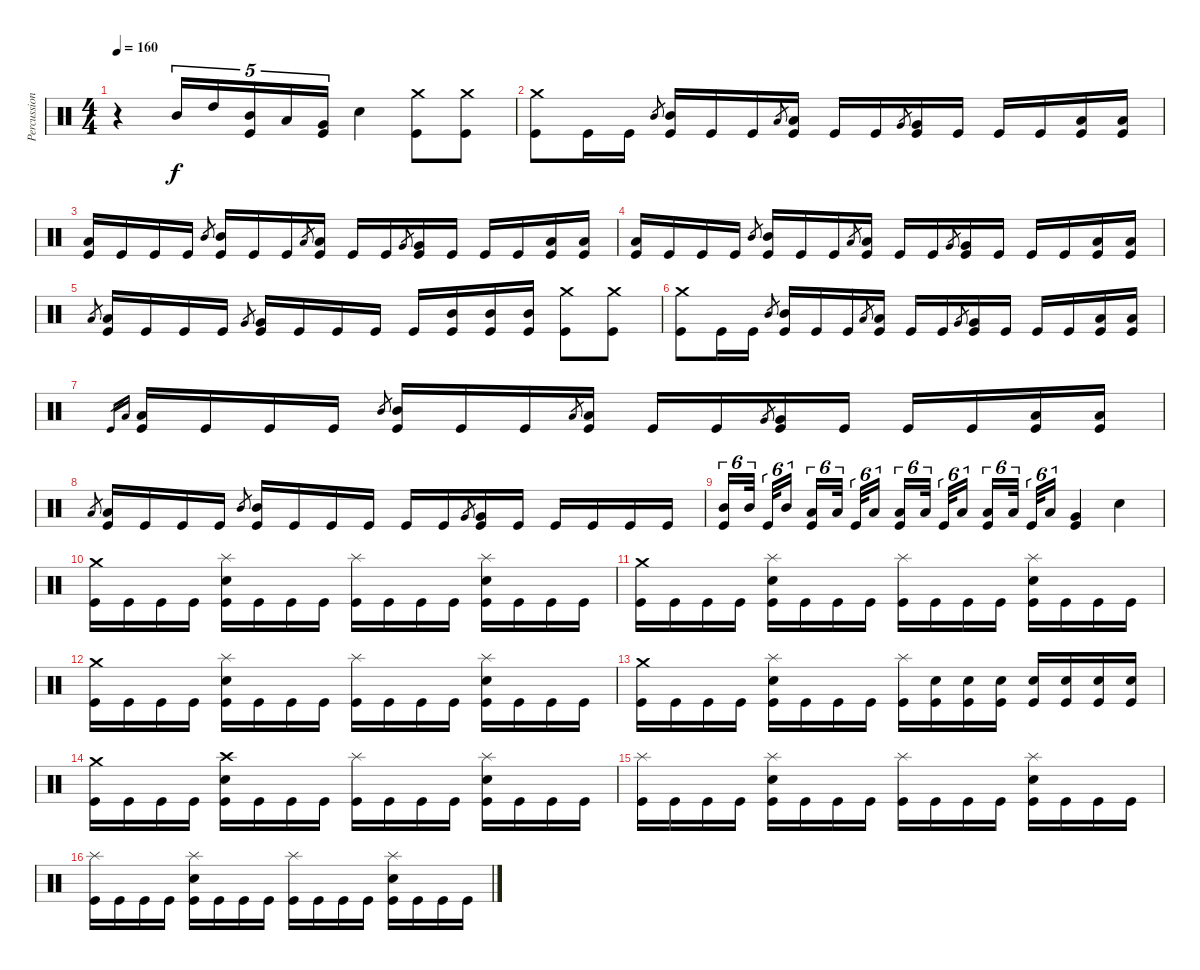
\track ("Percussions" "Percussion") {instrument percussion}
\staff {score}
\articulation defaults
\ts (4 4)
\tempo 160
\clef neutral
\ks c
r.4{dy f} "Mid Tom (hit)".16{tu (5 4)} "High Tom (hit)".16{tu (5 4)} ("Kick (hit)" "Mid Tom (hit)").16{tu (5 4)} "Low Tom (hit)".16{tu (5 4)} ("Kick (hit)" "Very Low Tom (hit)").16{tu (5 4)} "Electric Snare (hit)".4 ("Kick (hit)" "Crash medium (hit)").8 ("Kick (hit)" "Crash medium (hit)").8 |
("Kick (hit)" "Crash medium (hit)").8 "Kick (hit)".16 "Kick (hit)".16 "Mid Tom (hit)".8{gr} ("Kick (hit)" "Mid Tom (hit)").16 "Kick (hit)".16 "Kick (hit)".16 "Low Tom (hit)".8{gr} ("Kick (hit)" "Low Tom (hit)").16 "Kick (hit)".16 "Kick (hit)".16 "Very Low Tom (hit)".8{gr} ("Kick (hit)" "Very Low Tom (hit)").16 "Kick (hit)".16 "Kick (hit)".16 "Kick (hit)".16 ("Kick (hit)" "Low Floor Tom (hit)").16 ("Kick (hit)" "Low Floor Tom (hit)").16 |
("Kick (hit)" "Low Floor Tom (hit)").16 "Kick (hit)".16 "Kick (hit)".16 "Kick (hit)".16 "Mid Tom (hit)".8{gr} ("Kick (hit)" "Mid Tom (hit)").16 "Kick (hit)".16 "Kick (hit)".16 "Low Tom (hit)".8{gr} ("Kick (hit)" "Low Tom (hit)").16 "Kick (hit)".16 "Kick (hit)".16 "Very Low Tom (hit)".8{gr} ("Kick (hit)" "Very Low Tom (hit)").16 "Kick (hit)".16 "Kick (hit)".16 "Kick (hit)".16 ("Kick (hit)" "Low Floor Tom (hit)").16 ("Kick (hit)" "Low Floor Tom (hit)").16 |
("Kick (hit)" "Low Floor Tom (hit)").16 "Kick (hit)".16 "Kick (hit)".16 "Kick (hit)".16 "Mid Tom (hit)".8{gr} ("Kick (hit)" "Mid Tom (hit)").16 "Kick (hit)".16 "Kick (hit)".16 "Low Tom (hit)".8{gr} ("Kick (hit)" "Low Tom (hit)").16 "Kick (hit)".16 "Kick (hit)".16 "Very Low Tom (hit)".8{gr} ("Kick (hit)" "Very Low Tom (hit)").16 "Kick (hit)".16 "Kick (hit)".16 "Kick (hit)".16 ("Kick (hit)" "Low Floor Tom (hit)").16 ("Kick (hit)" "Low Floor Tom (hit)").16 |
"Low Floor Tom (hit)".8{gr} ("Kick (hit)" "Low Floor Tom (hit)").16 "Kick (hit)".16 "Kick (hit)".16 "Kick (hit)".16 "Very Low Tom (hit)".8{gr} ("Kick (hit)" "Very Low Tom (hit)").16 "Kick (hit)".16 "Kick (hit)".16 "Kick (hit)".16 "Kick (hit)".16 ("Kick (hit)" "Mid Tom (hit)").16 ("Kick (hit)" "Mid Tom (hit)").16 ("Kick (hit)" "Mid Tom (hit)").16 ("Kick (hit)" "Crash medium (hit)").8 ("Kick (hit)" "Crash medium (hit)").8 |
("Kick (hit)" "Crash medium (hit)").8 "Kick (hit)".16 "Kick (hit)".16 "Mid Tom (hit)".8{gr} ("Kick (hit)" "Mid Tom (hit)").16 "Kick (hit)".16 "Kick (hit)".16 "Low Tom (hit)".8{gr} ("Kick (hit)" "Low Tom (hit)").16 "Kick (hit)".16 "Kick (hit)".16 "Very Low Tom (hit)".8{gr} ("Kick (hit)" "Very Low Tom (hit)").16 "Kick (hit)".16 "Kick (hit)".16 "Kick (hit)".16 ("Kick (hit)" "Low Floor Tom (hit)").16 ("Kick (hit)" "Low Floor Tom (hit)").16 |
"Kick (hit)".16{gr} "Low Floor Tom (hit)".16{gr} ("Kick (hit)" "Low Floor Tom (hit)").16 "Kick (hit)".16 "Kick (hit)".16 "Kick (hit)".16 "Mid Tom (hit)".8{gr} ("Kick (hit)" "Mid Tom (hit)").16 "Kick (hit)".16 "Kick (hit)".16 "Low Tom (hit)".8{gr} ("Kick (hit)" "Low Tom (hit)").16 "Kick (hit)".16 "Kick (hit)".16 "Very Low Tom (hit)".8{gr} ("Kick (hit)" "Very Low Tom (hit)").16 "Kick (hit)".16 "Kick (hit)".16 "Kick (hit)".16 ("Kick (hit)" "Low Floor Tom (hit)").16 ("Kick (hit)" "Low Floor Tom (hit)").16 |
"Low Floor Tom (hit)".8{gr} ("Kick (hit)" "Low Floor Tom (hit)").16 "Kick (hit)".16 "Kick (hit)".16 "Kick (hit)".16 "Mid Tom (hit)".8{gr} ("Kick (hit)" "Mid Tom (hit)").16 "Kick (hit)".16 "Kick (hit)".16 "Kick (hit)".16 "Kick (hit)".16 "Kick (hit)".16 "Very Low Tom (hit)".8{gr} ("Kick (hit)" "Very Low Tom (hit)").16 "Kick (hit)".16 "Kick (hit)".16 "Kick (hit)".16 "Kick (hit)".16 "Kick (hit)".16 |
("Kick (hit)" "Mid Tom (hit)").16{tu (6 4)} "Mid Tom (hit)".32{tu (6 4)} "Kick (hit)".32{tu (6 4)} "Mid Tom (hit)".16{tu (6 4)} ("Kick (hit)" "Low Tom (hit)").16{tu (6 4)} "Low Tom (hit)".32{tu (6 4)} "Kick (hit)".32{tu (6 4)} "Low Tom (hit)".16{tu (6 4)} ("Kick (hit)" "Low Tom (hit)").16{tu (6 4)} "Low Tom (hit)".32{tu (6 4)} "Kick (hit)".32{tu (6 4)} "Low Tom (hit)".16{tu (6 4)} ("Kick (hit)" "Low Tom (hit)").16{tu (6 4)} "Low Tom (hit)".32{tu (6 4)} "Kick (hit)".32{tu (6 4)} "Low Tom (hit)".16{tu (6 4)} ("Kick (hit)" "Very Low Tom (hit)").4 "Electric Snare (hit)".4 |
("Kick (hit)" "Crash medium (hit)").16 "Kick (hit)".16 "Kick (hit)".16 "Kick (hit)".16 ("Kick (hit)" "Electric Snare (hit)" "Splash (hit)").16 "Kick (hit)".16 "Kick (hit)".16 "Kick (hit)".16 ("Kick (hit)" "Splash (hit)").16 "Kick (hit)".16 "Kick (hit)".16 "Kick (hit)".16 ("Kick (hit)" "Electric Snare (hit)" "Splash (hit)").16 "Kick (hit)".16 "Kick (hit)".16 "Kick (hit)".16 |
("Kick (hit)" "Crash medium (hit)").16 "Kick (hit)".16 "Kick (hit)".16 "Kick (hit)".16 ("Kick (hit)" "Electric Snare (hit)" "Splash (hit)").16 "Kick (hit)".16 "Kick (hit)".16 "Kick (hit)".16 ("Kick (hit)" "Splash (hit)").16 "Kick (hit)".16 "Kick (hit)".16 "Kick (hit)".16 ("Kick (hit)" "Electric Snare (hit)" "Splash (hit)").16 "Kick (hit)".16 "Kick (hit)".16 "Kick (hit)".16 |
("Kick (hit)" "Crash medium (hit)").16 "Kick (hit)".16 "Kick (hit)".16 "Kick (hit)".16 ("Kick (hit)" "Electric Snare (hit)" "Splash (hit)").16 "Kick (hit)".16 "Kick (hit)".16 "Kick (hit)".16 ("Kick (hit)" "Splash (hit)").16 "Kick (hit)".16 "Kick (hit)".16 "Kick (hit)".16 ("Kick (hit)" "Electric Snare (hit)" "Splash (hit)").16 "Kick (hit)".16 "Kick (hit)".16 "Kick (hit)".16 |
("Kick (hit)" "Crash medium (hit)").16 "Kick (hit)".16 "Kick (hit)".16 "Kick (hit)".16 ("Kick (hit)" "Electric Snare (hit)" "Splash (hit)").16 "Kick (hit)".16 "Kick (hit)".16 "Kick (hit)".16 ("Kick (hit)" "Splash (hit)").16 ("Kick (hit)" "Electric Snare (hit)").16 ("Kick (hit)" "Electric Snare (hit)").16 ("Kick (hit)" "Electric Snare (hit)").16 ("Kick (hit)" "Electric Snare (hit)").16 ("Kick (hit)" "Electric Snare (hit)").16 ("Kick (hit)" "Electric Snare (hit)").16 ("Kick (hit)" "Electric Snare (hit)").16 |
("Kick (hit)" "Crash medium (hit)").16 "Kick (hit)".16 "Kick (hit)".16 "Kick (hit)".16 ("Kick (hit)" "Electric Snare (hit)" "Crash high (hit)").16 "Kick (hit)".16 "Kick (hit)".16 "Kick (hit)".16 ("Kick (hit)" "Splash (hit)").16 "Kick (hit)".16 "Kick (hit)".16 "Kick (hit)".16 ("Kick (hit)" "Electric Snare (hit)" "Splash (hit)").16 "Kick (hit)".16 "Kick (hit)".16 "Kick (hit)".16 |
("Kick (hit)" "Splash (hit)").16 "Kick (hit)".16 "Kick (hit)".16 "Kick (hit)".16 ("Kick (hit)" "Electric Snare (hit)" "Splash (hit)").16 "Kick (hit)".16 "Kick (hit)".16 "Kick (hit)".16 ("Kick (hit)" "Splash (hit)").16 "Kick (hit)".16 "Kick (hit)".16 "Kick (hit)".16 ("Kick (hit)" "Electric Snare (hit)" "Splash (hit)").16 "Kick (hit)".16 "Kick (hit)".16 "Kick (hit)".16 |
("Kick (hit)" "Splash (hit)").16 "Kick (hit)".16 "Kick (hit)".16 "Kick (hit)".16 ("Kick (hit)" "Electric Snare (hit)" "Splash (hit)").16 "Kick (hit)".16 "Kick (hit)".16 "Kick (hit)".16 ("Kick (hit)" "Splash (hit)").16 "Kick (hit)".16 "Kick (hit)".16 "Kick (hit)".16 ("Kick (hit)" "Electric Snare (hit)" "Splash (hit)").16 "Kick (hit)".16 "Kick (hit)".16 "Kick (hit)".16
